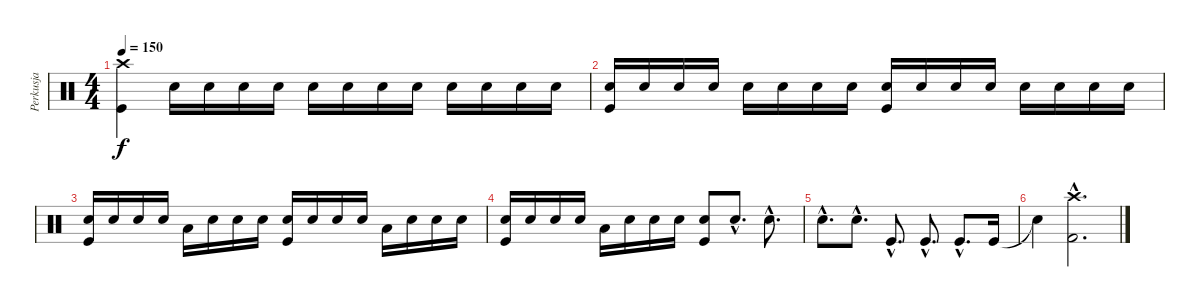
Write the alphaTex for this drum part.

\track ("Perkusja" "Perkusja") {instrument percussion}
\staff {score}
\articulation defaults
\ts (4 4)
\tempo 150
\clef neutral
\ks c
("Crash high (hit)" "Kick (hit)").4{dy f} "Snare (hit) 2".16 "Snare (hit) 2".16 "Snare (hit) 2".16 "Snare (hit) 2".16 "Snare (hit) 2".16 "Snare (hit) 2".16 "Snare (hit) 2".16 "Snare (hit) 2".16 "Snare (hit) 2".16 "Snare (hit) 2".16 "Snare (hit) 2".16 "Snare (hit) 2".16 |
("Snare (hit) 2" "Kick (hit)").16 "Snare (hit) 2".16 "Snare (hit) 2".16 "Snare (hit) 2".16 "Snare (hit) 2".16 "Snare (hit) 2".16 "Snare (hit) 2".16 "Snare (hit) 2".16 ("Snare (hit) 2" "Kick (hit)").16 "Snare (hit) 2".16 "Snare (hit) 2".16 "Snare (hit) 2".16 "Snare (hit) 2".16 "Snare (hit) 2".16 "Snare (hit) 2".16 "Snare (hit) 2".16 |
("Snare (hit) 2" "Kick (hit)").16 "Snare (hit) 2".16 "Snare (hit) 2".16 "Snare (hit) 2".16 "Low Floor Tom (hit)".16 "Snare (hit) 2".16 "Snare (hit) 2".16 "Snare (hit) 2".16 ("Snare (hit) 2" "Kick (hit)").16 "Snare (hit) 2".16 "Snare (hit) 2".16 "Snare (hit) 2".16 "Low Floor Tom (hit)".16 "Snare (hit) 2".16 "Snare (hit) 2".16 "Snare (hit) 2".16 |
("Snare (hit) 2" "Kick (hit)").16 "Snare (hit) 2".16 "Snare (hit) 2".16 "Snare (hit) 2".16 "Low Floor Tom (hit)".16 "Snare (hit) 2".16 "Snare (hit) 2".16 "Snare (hit) 2".16 ("Snare (hit) 2" "Kick (hit)").8 "Snare (hit) 2"{hac}.8{d} "Snare (hit) 2"{hac}.8{d} |
"Snare (hit) 2"{hac}.8{d} "Snare (hit) 2"{hac}.8{d} "Kick (hit)"{hac}.8{d} "Kick (hit)"{hac}.8{d} "Kick (hit)"{hac}.8{d} "Kick (hit)".16 |
"Snare (hit)"{t}.4 ("Crash high (hit)"{hac} "Kick (hit) 2"{hac}).2{d}
